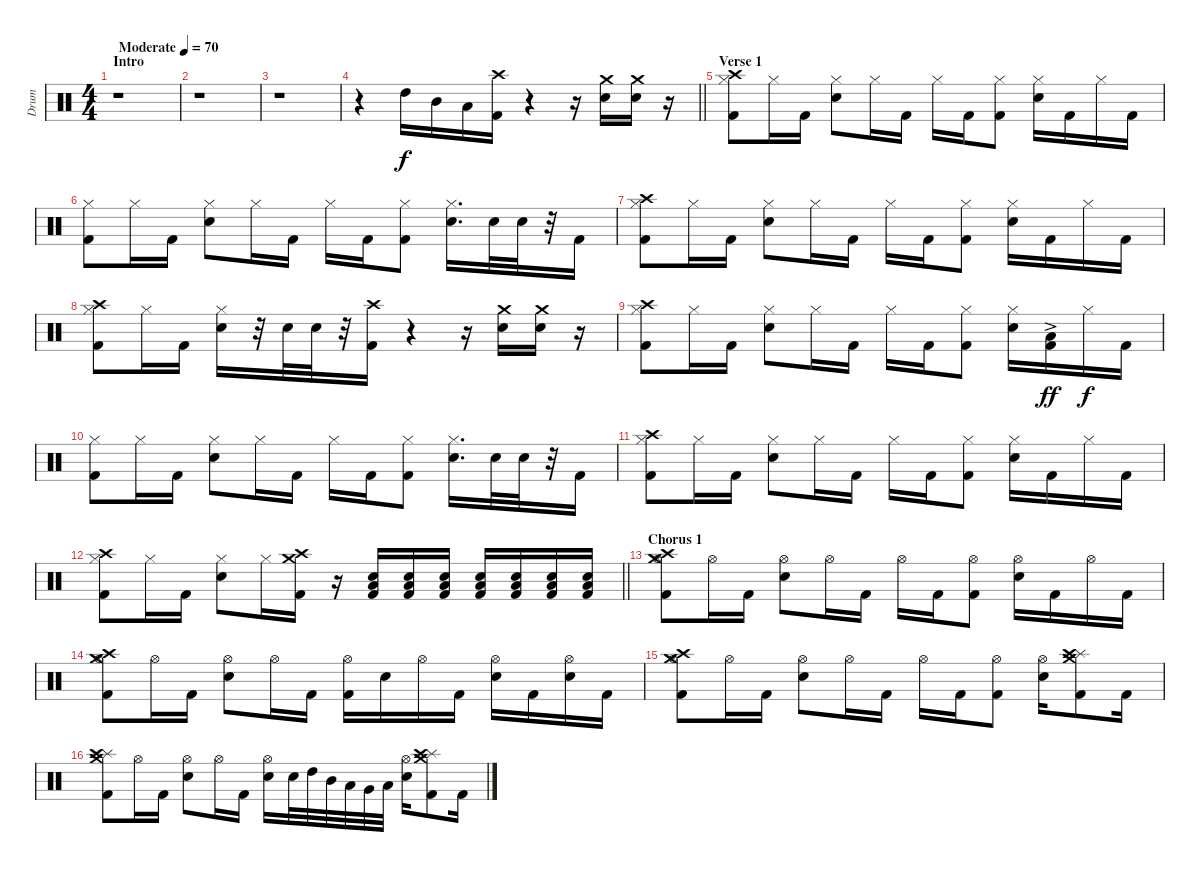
\track ("Drum" "Drum") {instrument percussion}
\staff {score}
\articulation defaults
\ts (4 4)
\section ("" "Intro")
\tempo (70 "Moderate")
\clef neutral
\ks c
r.1{dy f} |
r.1 |
r.1 |
\barLineRight lightlight
r.4 "High Tom (hit)".16 "Mid Tom (hit)".16 "Low Tom (hit)".16 ("Crash high (hit)" "Kick (hit) 2").16 r.4 r.16 ("Crash medium (hit)" "Snare (hit) 2").16 ("Crash medium (hit)" "Snare (hit) 2").16 r.16 |
\section ("" "Verse 1")
("Hi-Hat (closed)" "Crash high (hit)" "Kick (hit) 2").8 "Hi-Hat (closed)".16 "Kick (hit) 2".16 ("Hi-Hat (closed)" "Snare (hit) 2").8 "Hi-Hat (closed)".16 "Kick (hit) 2".16 "Hi-Hat (closed)".16 "Kick (hit) 2".16 ("Hi-Hat (closed)" "Kick (hit) 2").8 ("Hi-Hat (closed)" "Snare (hit) 2").16 "Kick (hit) 2".16 "Hi-Hat (closed)".16 "Kick (hit) 2".16 |
("Hi-Hat (closed)" "Kick (hit) 2").8 "Hi-Hat (closed)".16 "Kick (hit) 2".16 ("Hi-Hat (closed)" "Snare (hit) 2").8 "Hi-Hat (closed)".16 "Kick (hit) 2".16 "Hi-Hat (closed)".16 "Kick (hit) 2".16 ("Hi-Hat (closed)" "Kick (hit) 2").8 ("Hi-Hat (closed)" "Snare (hit) 2").16{d} "Snare (hit) 2".32 "Snare (hit) 2".32 r.32 "Kick (hit) 2".16 |
("Hi-Hat (closed)" "Crash high (hit)" "Kick (hit) 2").8 "Hi-Hat (closed)".16 "Kick (hit) 2".16 ("Hi-Hat (closed)" "Snare (hit) 2").8 "Hi-Hat (closed)".16 "Kick (hit) 2".16 "Hi-Hat (closed)".16 "Kick (hit) 2".16 ("Hi-Hat (closed)" "Kick (hit) 2").8 ("Hi-Hat (closed)" "Snare (hit) 2").16 "Kick (hit) 2".16 "Hi-Hat (closed)".16 "Kick (hit) 2".16 |
("Hi-Hat (closed)" "Crash high (hit)" "Kick (hit) 2").8 "Hi-Hat (closed)".16 "Kick (hit) 2".16 ("Hi-Hat (closed)" "Snare (hit) 2").16 r.32 "Snare (hit) 2".32 "Snare (hit) 2".32 r.32 ("Crash high (hit)" "Kick (hit) 2").16 r.4 r.16 ("Crash medium (hit)" "Snare (hit) 2").16 ("Crash medium (hit)" "Snare (hit) 2").16 r.16 |
("Hi-Hat (closed)" "Crash high (hit)" "Kick (hit) 2").8 "Hi-Hat (closed)".16 "Kick (hit) 2".16 ("Hi-Hat (closed)" "Snare (hit) 2").8 "Hi-Hat (closed)".16 "Kick (hit) 2".16 "Hi-Hat (closed)".16 "Kick (hit) 2".16 ("Hi-Hat (closed)" "Kick (hit) 2").8 ("Hi-Hat (closed)" "Snare (hit) 2").16 ("Low Tom (hit)"{ac} "Kick (hit) 2").16{dy ff} "Hi-Hat (closed)".16{dy f} "Kick (hit) 2".16 |
("Hi-Hat (closed)" "Kick (hit) 2").8 "Hi-Hat (closed)".16 "Kick (hit) 2".16 ("Hi-Hat (closed)" "Snare (hit) 2").8 "Hi-Hat (closed)".16 "Kick (hit) 2".16 "Hi-Hat (closed)".16 "Kick (hit) 2".16 ("Hi-Hat (closed)" "Kick (hit) 2").8 ("Hi-Hat (closed)" "Snare (hit) 2").16{d} "Snare (hit) 2".32 "Snare (hit) 2".32 r.32 "Kick (hit) 2".16 |
("Hi-Hat (closed)" "Crash high (hit)" "Kick (hit) 2").8 "Hi-Hat (closed)".16 "Kick (hit) 2".16 ("Hi-Hat (closed)" "Snare (hit) 2").8 "Hi-Hat (closed)".16 "Kick (hit) 2".16 "Hi-Hat (closed)".16 "Kick (hit) 2".16 ("Hi-Hat (closed)" "Kick (hit) 2").8 ("Hi-Hat (closed)" "Snare (hit) 2").16 "Kick (hit) 2".16 "Hi-Hat (closed)".16 "Kick (hit) 2".16 |
\barLineRight lightlight
("Hi-Hat (closed)" "Crash high (hit)" "Kick (hit) 2").8 "Hi-Hat (closed)".16 "Kick (hit) 2".16 ("Hi-Hat (closed)" "Snare (hit) 2").8 "Hi-Hat (closed)".16 ("Crash high (hit)" "Crash medium (hit)" "Kick (hit) 2").16 r.16 ("Low Floor Tom (hit)" "Electric Snare (hit)" "Kick (hit) 2").16 ("Low Floor Tom (hit)" "Electric Snare (hit)" "Kick (hit) 2").16 ("Low Floor Tom (hit)" "Electric Snare (hit)" "Kick (hit) 2").16 ("Low Floor Tom (hit)" "Electric Snare (hit)" "Kick (hit) 2").16 ("Low Floor Tom (hit)" "Electric Snare (hit)" "Kick (hit) 2").16 ("Low Floor Tom (hit)" "Electric Snare (hit)" "Kick (hit) 2").16 ("Low Floor Tom (hit)" "Electric Snare (hit)" "Kick (hit) 2").16 |
\section ("" "Chorus 1")
("Hi-Hat (open)" "Crash high (hit)" "Crash medium (hit)" "Kick (hit) 2").8 "Hi-Hat (open)".16 "Kick (hit) 2".16 ("Hi-Hat (open)" "Electric Snare (hit)").8 "Hi-Hat (open)".16 "Kick (hit) 2".16 "Hi-Hat (open)".16 "Kick (hit) 2".16 ("Hi-Hat (open)" "Kick (hit) 2").8 ("Hi-Hat (open)" "Electric Snare (hit)").16 "Kick (hit) 2".16 "Hi-Hat (open)".16 "Kick (hit) 2".16 |
("Hi-Hat (open)" "Crash high (hit)" "Crash medium (hit)" "Kick (hit) 2").8 "Hi-Hat (open)".16 "Kick (hit) 2".16 ("Hi-Hat (open)" "Electric Snare (hit)").8 "Hi-Hat (open)".16 "Kick (hit) 2".16 ("Hi-Hat (open)" "Kick (hit) 2").16 "Electric Snare (hit)".16 "Hi-Hat (open)".16 "Kick (hit) 2".16 ("Hi-Hat (open)" "Electric Snare (hit)").16 "Kick (hit) 2".16 ("Hi-Hat (open)" "Electric Snare (hit)").16 "Kick (hit) 2".16 |
("Hi-Hat (open)" "Crash high (hit)" "Crash medium (hit)" "Kick (hit) 2").8 "Hi-Hat (open)".16 "Kick (hit) 2".16 ("Hi-Hat (open)" "Electric Snare (hit)").8 "Hi-Hat (open)".16 "Kick (hit) 2".16 "Hi-Hat (open)".16 "Kick (hit) 2".16 ("Hi-Hat (open)" "Kick (hit) 2").8 ("Hi-Hat (open)" "Electric Snare (hit)").16 ("Splash (hit)" "Crash high (hit)" "Crash medium (hit)" "Kick (hit) 2").8 "Kick (hit) 2".16 |
("Splash (hit)" "Crash high (hit)" "Crash medium (hit)" "Kick (hit) 2").8 "Hi-Hat (open)".16 "Kick (hit) 2".16 ("Hi-Hat (open)" "Electric Snare (hit)").8 "Hi-Hat (open)".16 "Kick (hit) 2".16 ("Hi-Hat (open)" "Electric Snare (hit)").16 "Electric Snare (hit)".32 "High Tom (hit)".32 "Mid Tom (hit)".32 "Low Tom (hit)".32 "Very Low Tom (hit)".32 "Low Floor Tom (hit)".32 ("Hi-Hat (open)" "Electric Snare (hit)").16 ("Splash (hit)" "Crash high (hit)" "Crash medium (hit)" "Kick (hit) 2").8 "Kick (hit) 2".16
